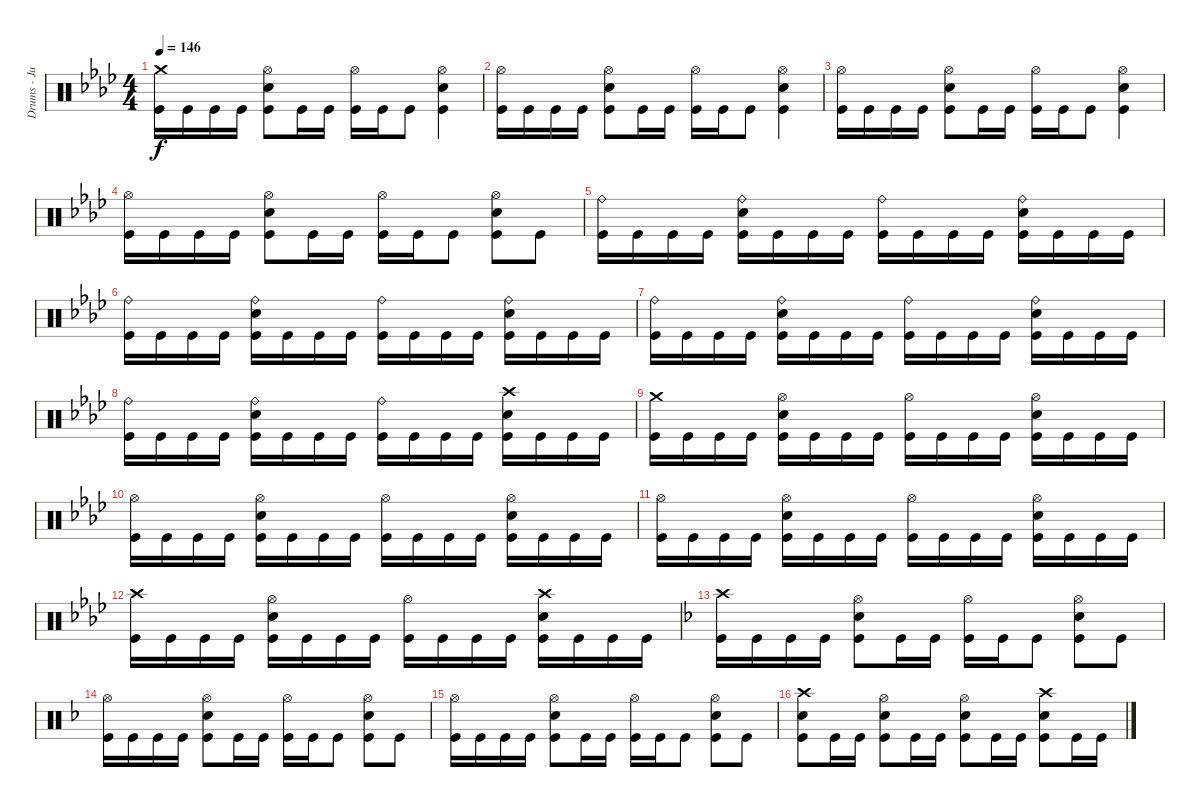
\track ("Drums - Jukka" "Drums - Ju") {instrument percussion}
\staff {score}
\articulation defaults
\ts (4 4)
\tempo 146
\clef neutral
\ks fminor
("Kick (hit)" "Crash medium (hit)").16{dy f} "Kick (hit)".16 "Kick (hit)".16 "Kick (hit)".16 ("Kick (hit)" "Snare (hit) 2" "Hi-Hat (open)").8 "Kick (hit)".16 "Kick (hit)".16 ("Kick (hit)" "Hi-Hat (open)").16 "Kick (hit)".16 "Kick (hit)".8 ("Kick (hit)" "Snare (hit) 2" "Hi-Hat (open)").4 |
("Kick (hit)" "Hi-Hat (open)").16 "Kick (hit)".16 "Kick (hit)".16 "Kick (hit)".16 ("Kick (hit)" "Snare (hit) 2" "Hi-Hat (open)").8 "Kick (hit)".16 "Kick (hit)".16 ("Kick (hit)" "Hi-Hat (open)").16 "Kick (hit)".16 "Kick (hit)".8 ("Kick (hit)" "Snare (hit) 2" "Hi-Hat (open)").4 |
("Kick (hit)" "Hi-Hat (open)").16 "Kick (hit)".16 "Kick (hit)".16 "Kick (hit)".16 ("Kick (hit)" "Snare (hit) 2" "Hi-Hat (open)").8 "Kick (hit)".16 "Kick (hit)".16 ("Kick (hit)" "Hi-Hat (open)").16 "Kick (hit)".16 "Kick (hit)".8 ("Kick (hit)" "Snare (hit) 2" "Hi-Hat (open)").4 |
("Kick (hit)" "Hi-Hat (open)").16 "Kick (hit)".16 "Kick (hit)".16 "Kick (hit)".16 ("Kick (hit)" "Snare (hit) 2" "Hi-Hat (open)").8 "Kick (hit)".16 "Kick (hit)".16 ("Kick (hit)" "Hi-Hat (open)").16 "Kick (hit)".16 "Kick (hit)".8 ("Kick (hit)" "Snare (hit) 2" "Hi-Hat (open)").8 "Kick (hit)".8 |
("Kick (hit)" "Ride (bell)").16 "Kick (hit)".16 "Kick (hit)".16 "Kick (hit)".16 ("Kick (hit)" "Ride (bell)" "Snare (hit) 2").16 "Kick (hit)".16 "Kick (hit)".16 "Kick (hit)".16 ("Kick (hit)" "Ride (bell)").16 "Kick (hit)".16 "Kick (hit)".16 "Kick (hit)".16 ("Kick (hit)" "Ride (bell)" "Snare (hit) 2").16 "Kick (hit)".16 "Kick (hit)".16 "Kick (hit)".16 |
("Kick (hit)" "Ride (bell)").16 "Kick (hit)".16 "Kick (hit)".16 "Kick (hit)".16 ("Kick (hit)" "Ride (bell)" "Snare (hit) 2").16 "Kick (hit)".16 "Kick (hit)".16 "Kick (hit)".16 ("Kick (hit)" "Ride (bell)").16 "Kick (hit)".16 "Kick (hit)".16 "Kick (hit)".16 ("Kick (hit)" "Ride (bell)" "Snare (hit) 2").16 "Kick (hit)".16 "Kick (hit)".16 "Kick (hit)".16 |
("Kick (hit)" "Ride (bell)").16 "Kick (hit)".16 "Kick (hit)".16 "Kick (hit)".16 ("Kick (hit)" "Ride (bell)" "Snare (hit) 2").16 "Kick (hit)".16 "Kick (hit)".16 "Kick (hit)".16 ("Kick (hit)" "Ride (bell)").16 "Kick (hit)".16 "Kick (hit)".16 "Kick (hit)".16 ("Kick (hit)" "Ride (bell)" "Snare (hit) 2").16 "Kick (hit)".16 "Kick (hit)".16 "Kick (hit)".16 |
("Kick (hit)" "Ride (bell)").16 "Kick (hit)".16 "Kick (hit)".16 "Kick (hit)".16 ("Kick (hit)" "Ride (bell)" "Snare (hit) 2").16 "Kick (hit)".16 "Kick (hit)".16 "Kick (hit)".16 ("Kick (hit)" "Ride (bell)").16 "Kick (hit)".16 "Kick (hit)".16 "Kick (hit)".16 ("Kick (hit)" "Crash high (hit)" "Snare (hit) 2").16 "Kick (hit)".16 "Kick (hit)".16 "Kick (hit)".16 |
("Kick (hit)" "Crash medium (hit)").16 "Kick (hit)".16 "Kick (hit)".16 "Kick (hit)".16 ("Kick (hit)" "Hi-Hat (open)" "Snare (hit) 2").16 "Kick (hit)".16 "Kick (hit)".16 "Kick (hit)".16 ("Kick (hit)" "Hi-Hat (open)").16 "Kick (hit)".16 "Kick (hit)".16 "Kick (hit)".16 ("Kick (hit)" "Hi-Hat (open)" "Snare (hit) 2").16 "Kick (hit)".16 "Kick (hit)".16 "Kick (hit)".16 |
("Kick (hit)" "Hi-Hat (open)").16 "Kick (hit)".16 "Kick (hit)".16 "Kick (hit)".16 ("Kick (hit)" "Hi-Hat (open)" "Snare (hit) 2").16 "Kick (hit)".16 "Kick (hit)".16 "Kick (hit)".16 ("Kick (hit)" "Hi-Hat (open)").16 "Kick (hit)".16 "Kick (hit)".16 "Kick (hit)".16 ("Kick (hit)" "Hi-Hat (open)" "Snare (hit) 2").16 "Kick (hit)".16 "Kick (hit)".16 "Kick (hit)".16 |
("Kick (hit)" "Hi-Hat (open)").16 "Kick (hit)".16 "Kick (hit)".16 "Kick (hit)".16 ("Kick (hit)" "Snare (hit) 2" "Hi-Hat (open)").16 "Kick (hit)".16 "Kick (hit)".16 "Kick (hit)".16 ("Kick (hit)" "Hi-Hat (open)").16 "Kick (hit)".16 "Kick (hit)".16 "Kick (hit)".16 ("Kick (hit)" "Hi-Hat (open)" "Snare (hit) 2").16 "Kick (hit)".16 "Kick (hit)".16 "Kick (hit)".16 |
("Kick (hit)" "Crash high (hit)").16 "Kick (hit)".16 "Kick (hit)".16 "Kick (hit)".16 ("Kick (hit)" "Hi-Hat (open)" "Snare (hit) 2").16 "Kick (hit)".16 "Kick (hit)".16 "Kick (hit)".16 ("Kick (hit)" "Hi-Hat (open)").16 "Kick (hit)".16 "Kick (hit)".16 "Kick (hit)".16 ("Kick (hit)" "Crash high (hit)" "Snare (hit) 2").16 "Kick (hit)".16 "Kick (hit)".16 "Kick (hit)".16 |
\ks dminor
("Kick (hit)" "Crash high (hit)").16 "Kick (hit)".16 "Kick (hit)".16 "Kick (hit)".16 ("Kick (hit)" "Snare (hit) 2" "Hi-Hat (open)").8 "Kick (hit)".16 "Kick (hit)".16 ("Kick (hit)" "Hi-Hat (open)").16 "Kick (hit)".16 "Kick (hit)".8 ("Kick (hit)" "Snare (hit) 2" "Hi-Hat (open)").8 "Kick (hit)".8 |
("Kick (hit)" "Hi-Hat (open)").16 "Kick (hit)".16 "Kick (hit)".16 "Kick (hit)".16 ("Kick (hit)" "Snare (hit) 2" "Hi-Hat (open)").8 "Kick (hit)".16 "Kick (hit)".16 ("Kick (hit)" "Hi-Hat (open)").16 "Kick (hit)".16 "Kick (hit)".8 ("Kick (hit)" "Snare (hit) 2" "Hi-Hat (open)").8 "Kick (hit)".8 |
("Kick (hit)" "Hi-Hat (open)").16 "Kick (hit)".16 "Kick (hit)".16 "Kick (hit)".16 ("Kick (hit)" "Snare (hit) 2" "Hi-Hat (open)").8 "Kick (hit)".16 "Kick (hit)".16 ("Kick (hit)" "Hi-Hat (open)").16 "Kick (hit)".16 "Kick (hit)".8 ("Kick (hit)" "Snare (hit) 2" "Hi-Hat (open)").8 "Kick (hit)".8 |
("Kick (hit)" "Crash high (hit)" "Snare (hit) 2").8 "Kick (hit)".16 "Kick (hit)".16 ("Kick (hit)" "Snare (hit) 2" "Hi-Hat (open)").8 "Kick (hit)".16 "Kick (hit)".16 ("Kick (hit)" "Snare (hit) 2" "Hi-Hat (open)").8 "Kick (hit)".16 "Kick (hit)".16 ("Kick (hit)" "Snare (hit) 2" "Crash high (hit)").8 "Kick (hit)".16 "Kick (hit)".16
